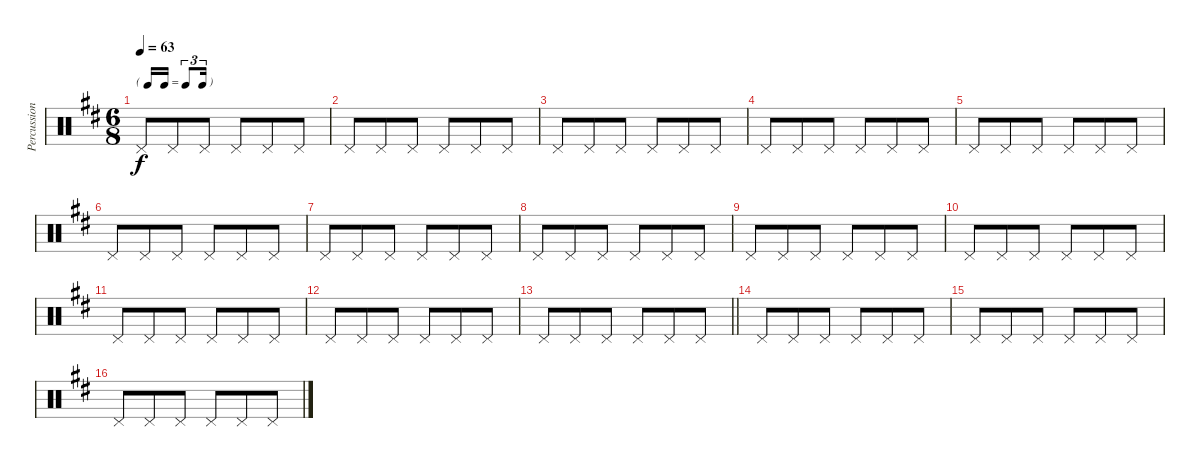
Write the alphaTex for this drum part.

\track ("Percussion" "Percussion") {instrument percussion}
\staff {score}
\articulation defaults
\ts (6 8)
\tf triplet16th
\tempo 63
\clef neutral
\ks bminor "Pedal Hi-Hat (hit)".8{dy f} "Pedal Hi-Hat (hit)".8 "Pedal Hi-Hat (hit)".8 "Pedal Hi-Hat (hit)".8 "Pedal Hi-Hat (hit)".8 "Pedal Hi-Hat (hit)".8
|
"Pedal Hi-Hat (hit)".8 "Pedal Hi-Hat (hit)".8 "Pedal Hi-Hat (hit)".8 "Pedal Hi-Hat (hit)".8 "Pedal Hi-Hat (hit)".8 "Pedal Hi-Hat (hit)".8 |
"Pedal Hi-Hat (hit)".8 "Pedal Hi-Hat (hit)".8 "Pedal Hi-Hat (hit)".8 "Pedal Hi-Hat (hit)".8 "Pedal Hi-Hat (hit)".8 "Pedal Hi-Hat (hit)".8 |
"Pedal Hi-Hat (hit)".8 "Pedal Hi-Hat (hit)".8 "Pedal Hi-Hat (hit)".8 "Pedal Hi-Hat (hit)".8 "Pedal Hi-Hat (hit)".8 "Pedal Hi-Hat (hit)".8 |
"Pedal Hi-Hat (hit)".8 "Pedal Hi-Hat (hit)".8 "Pedal Hi-Hat (hit)".8 "Pedal Hi-Hat (hit)".8 "Pedal Hi-Hat (hit)".8 "Pedal Hi-Hat (hit)".8 |
"Pedal Hi-Hat (hit)".8 "Pedal Hi-Hat (hit)".8 "Pedal Hi-Hat (hit)".8 "Pedal Hi-Hat (hit)".8 "Pedal Hi-Hat (hit)".8 "Pedal Hi-Hat (hit)".8 |
"Pedal Hi-Hat (hit)".8 "Pedal Hi-Hat (hit)".8 "Pedal Hi-Hat (hit)".8 "Pedal Hi-Hat (hit)".8 "Pedal Hi-Hat (hit)".8 "Pedal Hi-Hat (hit)".8 |
"Pedal Hi-Hat (hit)".8 "Pedal Hi-Hat (hit)".8 "Pedal Hi-Hat (hit)".8 "Pedal Hi-Hat (hit)".8 "Pedal Hi-Hat (hit)".8 "Pedal Hi-Hat (hit)".8 |
"Pedal Hi-Hat (hit)".8 "Pedal Hi-Hat (hit)".8 "Pedal Hi-Hat (hit)".8 "Pedal Hi-Hat (hit)".8 "Pedal Hi-Hat (hit)".8 "Pedal Hi-Hat (hit)".8 |
"Pedal Hi-Hat (hit)".8 "Pedal Hi-Hat (hit)".8 "Pedal Hi-Hat (hit)".8 "Pedal Hi-Hat (hit)".8 "Pedal Hi-Hat (hit)".8 "Pedal Hi-Hat (hit)".8 |
"Pedal Hi-Hat (hit)".8 "Pedal Hi-Hat (hit)".8 "Pedal Hi-Hat (hit)".8 "Pedal Hi-Hat (hit)".8 "Pedal Hi-Hat (hit)".8 "Pedal Hi-Hat (hit)".8 |
"Pedal Hi-Hat (hit)".8 "Pedal Hi-Hat (hit)".8 "Pedal Hi-Hat (hit)".8 "Pedal Hi-Hat (hit)".8 "Pedal Hi-Hat (hit)".8 "Pedal Hi-Hat (hit)".8 |
\barLineRight lightlight "Pedal Hi-Hat (hit)".8 "Pedal Hi-Hat (hit)".8 "Pedal Hi-Hat (hit)".8 "Pedal Hi-Hat (hit)".8 "Pedal Hi-Hat (hit)".8 "Pedal Hi-Hat (hit)".8
|
"Pedal Hi-Hat (hit)".8 "Pedal Hi-Hat (hit)".8 "Pedal Hi-Hat (hit)".8 "Pedal Hi-Hat (hit)".8 "Pedal Hi-Hat (hit)".8 "Pedal Hi-Hat (hit)".8 |
"Pedal Hi-Hat (hit)".8 "Pedal Hi-Hat (hit)".8 "Pedal Hi-Hat (hit)".8 "Pedal Hi-Hat (hit)".8 "Pedal Hi-Hat (hit)".8 "Pedal Hi-Hat (hit)".8 |
"Pedal Hi-Hat (hit)".8 "Pedal Hi-Hat (hit)".8 "Pedal Hi-Hat (hit)".8 "Pedal Hi-Hat (hit)".8 "Pedal Hi-Hat (hit)".8 "Pedal Hi-Hat (hit)".8
